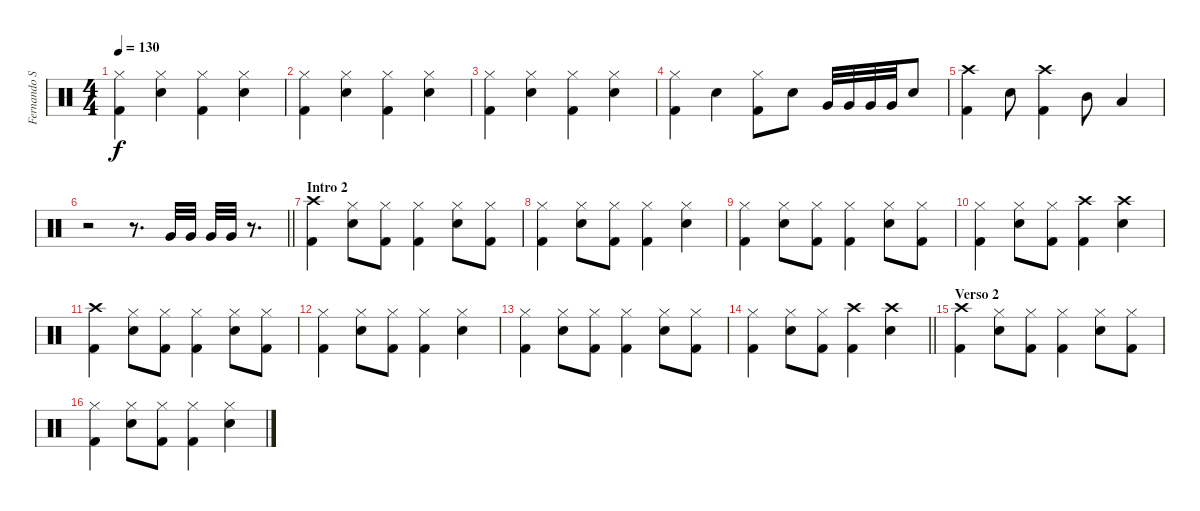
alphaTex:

\track ("Fernando Scarcella" "Fernando S") {instrument percussion}
\staff {score}
\articulation defaults
\ts (4 4)
\tempo 130
\clef neutral
\ks c
("Hi-Hat (closed)" "Kick (hit) 2").4{dy f} ("Hi-Hat (closed)" "Snare (hit) 2").4 ("Hi-Hat (closed)" "Kick (hit) 2").4 ("Hi-Hat (closed)" "Snare (hit) 2").4 |
("Hi-Hat (closed)" "Kick (hit) 2").4 ("Hi-Hat (closed)" "Snare (hit) 2").4 ("Hi-Hat (closed)" "Kick (hit) 2").4 ("Hi-Hat (closed)" "Snare (hit) 2").4 |
("Hi-Hat (closed)" "Kick (hit) 2").4 ("Hi-Hat (closed)" "Snare (hit) 2").4 ("Hi-Hat (closed)" "Kick (hit) 2").4 ("Hi-Hat (closed)" "Snare (hit) 2").4 |
("Hi-Hat (closed)" "Kick (hit) 2").4 "Snare (hit) 2".4 ("Hi-Hat (closed)" "Kick (hit) 2").8 "Snare (hit) 2".8 "Very Low Tom (hit)".32 "Very Low Tom (hit)".32 "Very Low Tom (hit)".32 "Very Low Tom (hit)".32 "Snare (hit) 2".8 |
("Crash high (hit)" "Kick (hit) 2").4 "Snare (hit) 2".8 ("Crash high (hit)" "Kick (hit) 2").4 "Mid Tom (hit)".8 "Low Tom (hit)".4 |
\barLineRight lightlight
r.2 r.8{d} "Very Low Tom (hit)".32 "Very Low Tom (hit)".32 "Very Low Tom (hit)".32 "Very Low Tom (hit)".32 r.8{d} |
\section ("" "Intro 2")
("Crash high (hit)" "Kick (hit) 2").4 ("Hi-Hat (closed)" "Snare (hit) 2").8 ("Hi-Hat (closed)" "Kick (hit) 2").8 ("Hi-Hat (closed)" "Kick (hit) 2").4 ("Hi-Hat (closed)" "Snare (hit) 2").8 ("Hi-Hat (closed)" "Kick (hit) 2").8 |
("Hi-Hat (closed)" "Kick (hit) 2").4 ("Hi-Hat (closed)" "Snare (hit) 2").8 ("Hi-Hat (closed)" "Kick (hit) 2").8 ("Hi-Hat (closed)" "Kick (hit) 2").4 ("Hi-Hat (closed)" "Snare (hit) 2").4 |
("Hi-Hat (closed)" "Kick (hit) 2").4 ("Hi-Hat (closed)" "Snare (hit) 2").8 ("Hi-Hat (closed)" "Kick (hit) 2").8 ("Hi-Hat (closed)" "Kick (hit) 2").4 ("Hi-Hat (closed)" "Snare (hit) 2").8 ("Hi-Hat (closed)" "Kick (hit) 2").8 |
("Hi-Hat (closed)" "Kick (hit) 2").4 ("Hi-Hat (closed)" "Snare (hit) 2").8 ("Hi-Hat (closed)" "Kick (hit) 2").8 ("Crash high (hit)" "Kick (hit) 2").4 ("Crash high (hit)" "Snare (hit) 2").4 |
("Crash high (hit)" "Kick (hit) 2").4 ("Hi-Hat (closed)" "Snare (hit) 2").8 ("Hi-Hat (closed)" "Kick (hit) 2").8 ("Hi-Hat (closed)" "Kick (hit) 2").4 ("Hi-Hat (closed)" "Snare (hit) 2").8 ("Hi-Hat (closed)" "Kick (hit) 2").8 |
("Hi-Hat (closed)" "Kick (hit) 2").4 ("Hi-Hat (closed)" "Snare (hit) 2").8 ("Hi-Hat (closed)" "Kick (hit) 2").8 ("Hi-Hat (closed)" "Kick (hit) 2").4 ("Hi-Hat (closed)" "Snare (hit) 2").4 |
("Hi-Hat (closed)" "Kick (hit) 2").4 ("Hi-Hat (closed)" "Snare (hit) 2").8 ("Hi-Hat (closed)" "Kick (hit) 2").8 ("Hi-Hat (closed)" "Kick (hit) 2").4 ("Hi-Hat (closed)" "Snare (hit) 2").8 ("Hi-Hat (closed)" "Kick (hit) 2").8 |
\barLineRight lightlight
("Hi-Hat (closed)" "Kick (hit) 2").4 ("Hi-Hat (closed)" "Snare (hit) 2").8 ("Hi-Hat (closed)" "Kick (hit) 2").8 ("Crash high (hit)" "Kick (hit) 2").4 ("Crash high (hit)" "Snare (hit) 2").4 |
\section ("" "Verso 2")
("Crash high (hit)" "Kick (hit) 2").4 ("Hi-Hat (closed)" "Snare (hit) 2").8 ("Hi-Hat (closed)" "Kick (hit) 2").8 ("Hi-Hat (closed)" "Kick (hit) 2").4 ("Hi-Hat (closed)" "Snare (hit) 2").8 ("Hi-Hat (closed)" "Kick (hit) 2").8 |
("Hi-Hat (closed)" "Kick (hit) 2").4 ("Hi-Hat (closed)" "Snare (hit) 2").8 ("Hi-Hat (closed)" "Kick (hit) 2").8 ("Hi-Hat (closed)" "Kick (hit) 2").4 ("Hi-Hat (closed)" "Snare (hit) 2").4
